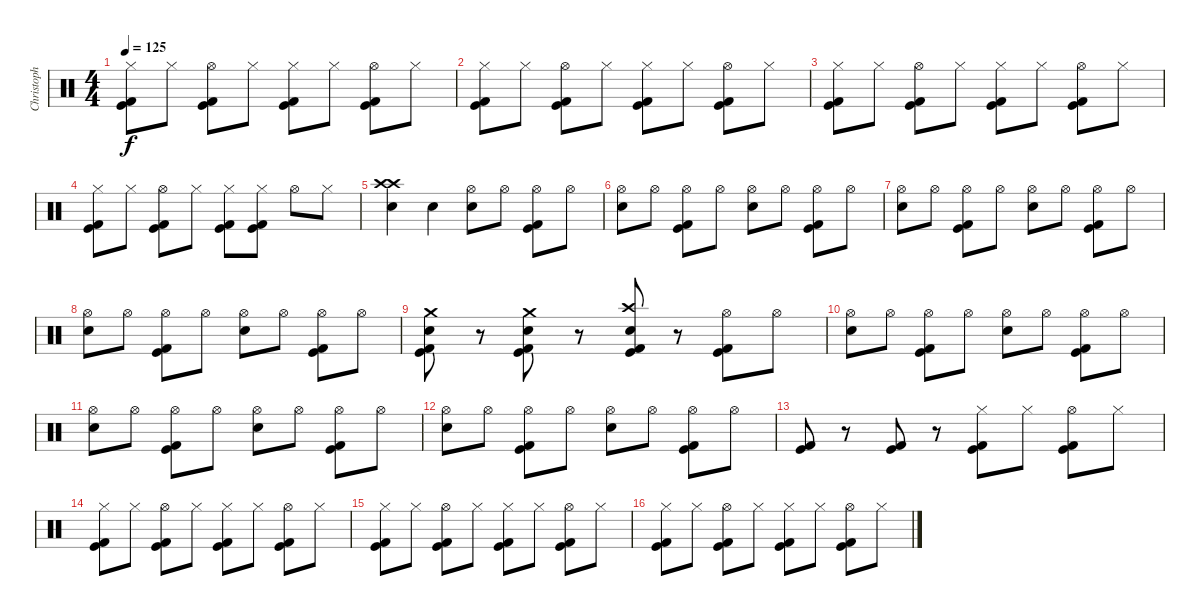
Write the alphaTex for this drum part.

\track ("Christoph (Drums)" "Christoph ") {instrument percussion}
\staff {score}
\articulation defaults
\ts (4 4)
\tempo 125
\clef neutral
\ks c
("Hi-Hat (closed)" "Kick (hit) 2" "Kick (hit)").8{dy f} "Hi-Hat (closed)".8 ("Hi-Hat (open)" "Kick (hit) 2" "Kick (hit)").8 "Hi-Hat (closed)".8 ("Hi-Hat (closed)" "Kick (hit) 2" "Kick (hit)").8 "Hi-Hat (closed)".8 ("Hi-Hat (open)" "Kick (hit) 2" "Kick (hit)").8 "Hi-Hat (closed)".8 |
("Hi-Hat (closed)" "Kick (hit) 2" "Kick (hit)").8 "Hi-Hat (closed)".8 ("Hi-Hat (open)" "Kick (hit) 2" "Kick (hit)").8 "Hi-Hat (closed)".8 ("Hi-Hat (closed)" "Kick (hit) 2" "Kick (hit)").8 "Hi-Hat (closed)".8 ("Hi-Hat (open)" "Kick (hit) 2" "Kick (hit)").8 "Hi-Hat (closed)".8 |
("Hi-Hat (closed)" "Kick (hit) 2" "Kick (hit)").8 "Hi-Hat (closed)".8 ("Hi-Hat (open)" "Kick (hit) 2" "Kick (hit)").8 "Hi-Hat (closed)".8 ("Hi-Hat (closed)" "Kick (hit) 2" "Kick (hit)").8 "Hi-Hat (closed)".8 ("Hi-Hat (open)" "Kick (hit) 2" "Kick (hit)").8 "Hi-Hat (closed)".8 |
("Hi-Hat (closed)" "Kick (hit) 2" "Kick (hit)").8 "Hi-Hat (closed)".8 ("Hi-Hat (open)" "Kick (hit) 2" "Kick (hit)").8 "Hi-Hat (closed)".8 ("Hi-Hat (closed)" "Kick (hit) 2" "Kick (hit)").8 ("Hi-Hat (closed)" "Kick (hit) 2" "Kick (hit)").8 "Hi-Hat (open)".8 "Hi-Hat (closed)".8 |
("Crash high (hit)" "Crash high (hit)" "Snare (hit) 2").4 "Snare (hit) 2".4 ("Hi-Hat (open)" "Snare (hit) 2").8 "Hi-Hat (open)".8 ("Hi-Hat (open)" "Kick (hit) 2" "Kick (hit)").8 "Hi-Hat (open)".8 |
("Hi-Hat (open)" "Snare (hit) 2").8 "Hi-Hat (open)".8 ("Hi-Hat (open)" "Kick (hit) 2" "Kick (hit)").8 "Hi-Hat (open)".8 ("Hi-Hat (open)" "Snare (hit) 2").8 "Hi-Hat (open)".8 ("Hi-Hat (open)" "Kick (hit) 2" "Kick (hit)").8 "Hi-Hat (open)".8 |
("Hi-Hat (open)" "Snare (hit) 2").8 "Hi-Hat (open)".8 ("Hi-Hat (open)" "Kick (hit) 2" "Kick (hit)").8 "Hi-Hat (open)".8 ("Hi-Hat (open)" "Snare (hit) 2").8 "Hi-Hat (open)".8 ("Hi-Hat (open)" "Kick (hit) 2" "Kick (hit)").8 "Hi-Hat (open)".8 |
("Hi-Hat (open)" "Snare (hit) 2").8 "Hi-Hat (open)".8 ("Hi-Hat (open)" "Kick (hit) 2" "Kick (hit)").8 "Hi-Hat (open)".8 ("Hi-Hat (open)" "Snare (hit) 2").8 "Hi-Hat (open)".8 ("Hi-Hat (open)" "Kick (hit) 2" "Kick (hit)").8 "Hi-Hat (open)".8 |
("Crash medium (hit)" "Snare (hit) 2" "Kick (hit) 2" "Kick (hit)").8 r.8 ("Crash medium (hit)" "Snare (hit) 2" "Kick (hit) 2" "Kick (hit)").8 r.8 ("Crash high (hit)" "Snare (hit) 2" "Kick (hit) 2" "Kick (hit)").8 r.8 ("Hi-Hat (open)" "Kick (hit) 2" "Kick (hit)").8 "Hi-Hat (open)".8 |
("Hi-Hat (open)" "Snare (hit) 2").8 "Hi-Hat (open)".8 ("Hi-Hat (open)" "Kick (hit) 2" "Kick (hit)").8 "Hi-Hat (open)".8 ("Hi-Hat (open)" "Snare (hit) 2").8 "Hi-Hat (open)".8 ("Hi-Hat (open)" "Kick (hit) 2" "Kick (hit)").8 "Hi-Hat (open)".8 |
("Hi-Hat (open)" "Snare (hit) 2").8 "Hi-Hat (open)".8 ("Hi-Hat (open)" "Kick (hit) 2" "Kick (hit)").8 "Hi-Hat (open)".8 ("Hi-Hat (open)" "Snare (hit) 2").8 "Hi-Hat (open)".8 ("Hi-Hat (open)" "Kick (hit) 2" "Kick (hit)").8 "Hi-Hat (open)".8 |
("Hi-Hat (open)" "Snare (hit) 2").8 "Hi-Hat (open)".8 ("Hi-Hat (open)" "Kick (hit) 2" "Kick (hit)").8 "Hi-Hat (open)".8 ("Hi-Hat (open)" "Snare (hit) 2").8 "Hi-Hat (open)".8 ("Hi-Hat (open)" "Kick (hit) 2" "Kick (hit)").8 "Hi-Hat (open)".8 |
("Kick (hit) 2" "Kick (hit)").8 r.8 ("Kick (hit) 2" "Kick (hit)").8 r.8 ("Hi-Hat (closed)" "Kick (hit) 2" "Kick (hit)").8 "Hi-Hat (closed)".8 ("Hi-Hat (open)" "Kick (hit) 2" "Kick (hit)").8 "Hi-Hat (closed)".8 |
("Hi-Hat (closed)" "Kick (hit) 2" "Kick (hit)").8 "Hi-Hat (closed)".8 ("Hi-Hat (open)" "Kick (hit) 2" "Kick (hit)").8 "Hi-Hat (closed)".8 ("Hi-Hat (closed)" "Kick (hit) 2" "Kick (hit)").8 "Hi-Hat (closed)".8 ("Hi-Hat (open)" "Kick (hit) 2" "Kick (hit)").8 "Hi-Hat (closed)".8 |
("Hi-Hat (closed)" "Kick (hit) 2" "Kick (hit)").8 "Hi-Hat (closed)".8 ("Hi-Hat (open)" "Kick (hit) 2" "Kick (hit)").8 "Hi-Hat (closed)".8 ("Hi-Hat (closed)" "Kick (hit) 2" "Kick (hit)").8 "Hi-Hat (closed)".8 ("Hi-Hat (open)" "Kick (hit) 2" "Kick (hit)").8 "Hi-Hat (closed)".8 |
("Hi-Hat (closed)" "Kick (hit) 2" "Kick (hit)").8 "Hi-Hat (closed)".8 ("Hi-Hat (open)" "Kick (hit) 2" "Kick (hit)").8 "Hi-Hat (closed)".8 ("Hi-Hat (closed)" "Kick (hit) 2" "Kick (hit)").8 "Hi-Hat (closed)".8 ("Hi-Hat (open)" "Kick (hit) 2" "Kick (hit)").8 "Hi-Hat (closed)".8
